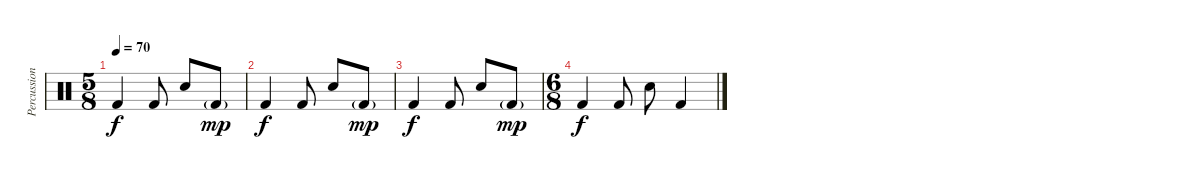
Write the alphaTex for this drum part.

\track ("Percussion" "Percussion") {instrument percussion}
\staff {score}
\articulation defaults
\ts (5 8)
\tempo 70
\clef neutral
\ks c "Kick (hit) 2".4{dy f} "Kick (hit) 2".8 "Snare (hit) 2".8 "Kick (hit) 2"{g}.8{dy mp}
|
"Kick (hit) 2".4{dy f} "Kick (hit) 2".8 "Snare (hit) 2".8 "Kick (hit) 2"{g}.8{dy mp} |
"Kick (hit) 2".4{dy f} "Kick (hit) 2".8 "Snare (hit) 2".8 "Kick (hit) 2"{g}.8{dy mp} |
\ts (6 8)
"Kick (hit) 2".4{dy f} "Kick (hit) 2".8 "Snare (hit) 2".8 "Kick (hit) 2".4
